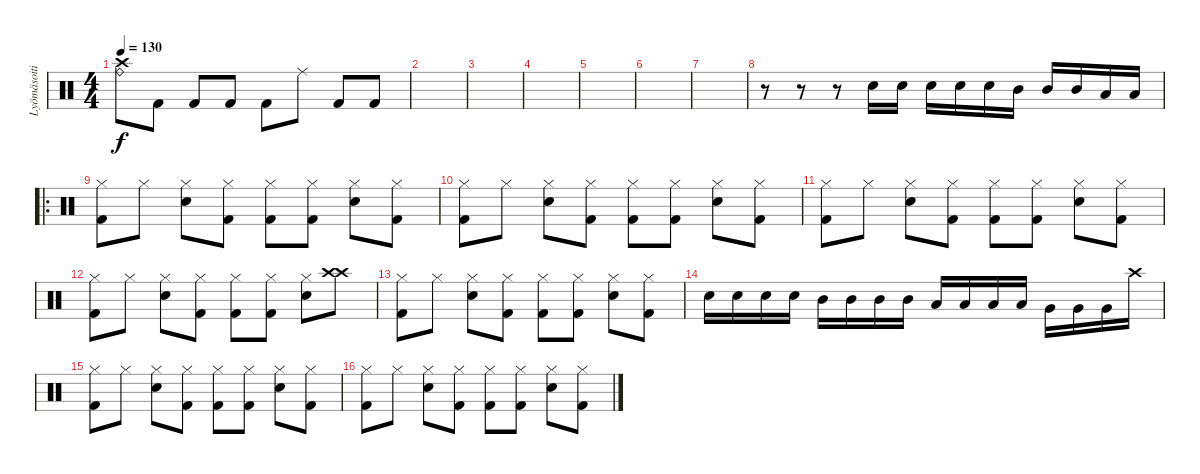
\track ("Lyömäsoitin" "Lyömäsoiti") {instrument percussion}
\staff {score}
\articulation defaults
\ts (4 4)
\tempo 130
\clef neutral
\ks c
("Ride (bell)" "Crash high (hit)").8{dy f} "Kick (hit) 2".8 "Kick (hit) 2".8 "Kick (hit) 2".8 "Kick (hit) 2".8 "Ride (middle)".8 "Kick (hit) 2".8 "Kick (hit) 2".8 |
|
|
|
|
|
|
r.8 r.8 r.8 "Electric Snare (hit)".16 "Electric Snare (hit)".16 "Electric Snare (hit)".16 "Electric Snare (hit)".16 "Electric Snare (hit)".16 "Mid Tom (hit)".16 "Mid Tom (hit)".16 "Mid Tom (hit)".16 "Low Tom (hit)".16 "Low Tom (hit)".16 |
\ro
("Hi-Hat (closed)" "Kick (hit) 2").8 "Hi-Hat (closed)".8 ("Electric Snare (hit)" "Hi-Hat (closed)").8 ("Hi-Hat (closed)" "Kick (hit) 2").8 ("Hi-Hat (closed)" "Kick (hit) 2").8 ("Hi-Hat (closed)" "Kick (hit) 2").8 ("Electric Snare (hit)" "Hi-Hat (closed)").8 ("Hi-Hat (closed)" "Kick (hit) 2").8 |
("Hi-Hat (closed)" "Kick (hit) 2").8 "Hi-Hat (closed)".8 ("Electric Snare (hit)" "Hi-Hat (closed)").8 ("Hi-Hat (closed)" "Kick (hit) 2").8 ("Hi-Hat (closed)" "Kick (hit) 2").8 ("Hi-Hat (closed)" "Kick (hit) 2").8 ("Electric Snare (hit)" "Hi-Hat (closed)").8 ("Hi-Hat (closed)" "Kick (hit) 2").8 |
("Hi-Hat (closed)" "Kick (hit) 2").8 "Hi-Hat (closed)".8 ("Electric Snare (hit)" "Hi-Hat (closed)").8 ("Hi-Hat (closed)" "Kick (hit) 2").8 ("Hi-Hat (closed)" "Kick (hit) 2").8 ("Hi-Hat (closed)" "Kick (hit) 2").8 ("Electric Snare (hit)" "Hi-Hat (closed)").8 ("Hi-Hat (closed)" "Kick (hit) 2").8 |
("Hi-Hat (closed)" "Kick (hit) 2").8 "Hi-Hat (closed)".8 ("Electric Snare (hit)" "Hi-Hat (closed)").8 ("Hi-Hat (closed)" "Kick (hit) 2").8 ("Hi-Hat (closed)" "Kick (hit) 2").8 ("Hi-Hat (closed)" "Kick (hit) 2").8 ("Electric Snare (hit)" "Hi-Hat (closed)").8 ("Crash high (hit)" "Crash high (hit)").8 |
("Hi-Hat (closed)" "Kick (hit) 2").8 "Hi-Hat (closed)".8 ("Electric Snare (hit)" "Hi-Hat (closed)").8 ("Hi-Hat (closed)" "Kick (hit) 2").8 ("Hi-Hat (closed)" "Kick (hit) 2").8 ("Hi-Hat (closed)" "Kick (hit) 2").8 ("Electric Snare (hit)" "Hi-Hat (closed)").8 ("Hi-Hat (closed)" "Kick (hit) 2").8 |
"Electric Snare (hit)".16 "Electric Snare (hit)".16 "Electric Snare (hit)".16 "Electric Snare (hit)".16 "Mid Tom (hit)".16 "Mid Tom (hit)".16 "Mid Tom (hit)".16 "Mid Tom (hit)".16 "Low Tom (hit)".16 "Low Tom (hit)".16 "Low Tom (hit)".16 "Low Tom (hit)".16 "Very Low Tom (hit)".16 "Very Low Tom (hit)".16 "Very Low Tom (hit)".16 "Crash high (hit)".16 |
("Hi-Hat (closed)" "Kick (hit) 2").8 "Hi-Hat (closed)".8 ("Electric Snare (hit)" "Hi-Hat (closed)").8 ("Hi-Hat (closed)" "Kick (hit) 2").8 ("Hi-Hat (closed)" "Kick (hit) 2").8 ("Hi-Hat (closed)" "Kick (hit) 2").8 ("Electric Snare (hit)" "Hi-Hat (closed)").8 ("Hi-Hat (closed)" "Kick (hit) 2").8 |
("Hi-Hat (closed)" "Kick (hit) 2").8 "Hi-Hat (closed)".8 ("Electric Snare (hit)" "Hi-Hat (closed)").8 ("Hi-Hat (closed)" "Kick (hit) 2").8 ("Hi-Hat (closed)" "Kick (hit) 2").8 ("Hi-Hat (closed)" "Kick (hit) 2").8 ("Electric Snare (hit)" "Hi-Hat (closed)").8 ("Hi-Hat (closed)" "Kick (hit) 2").8
